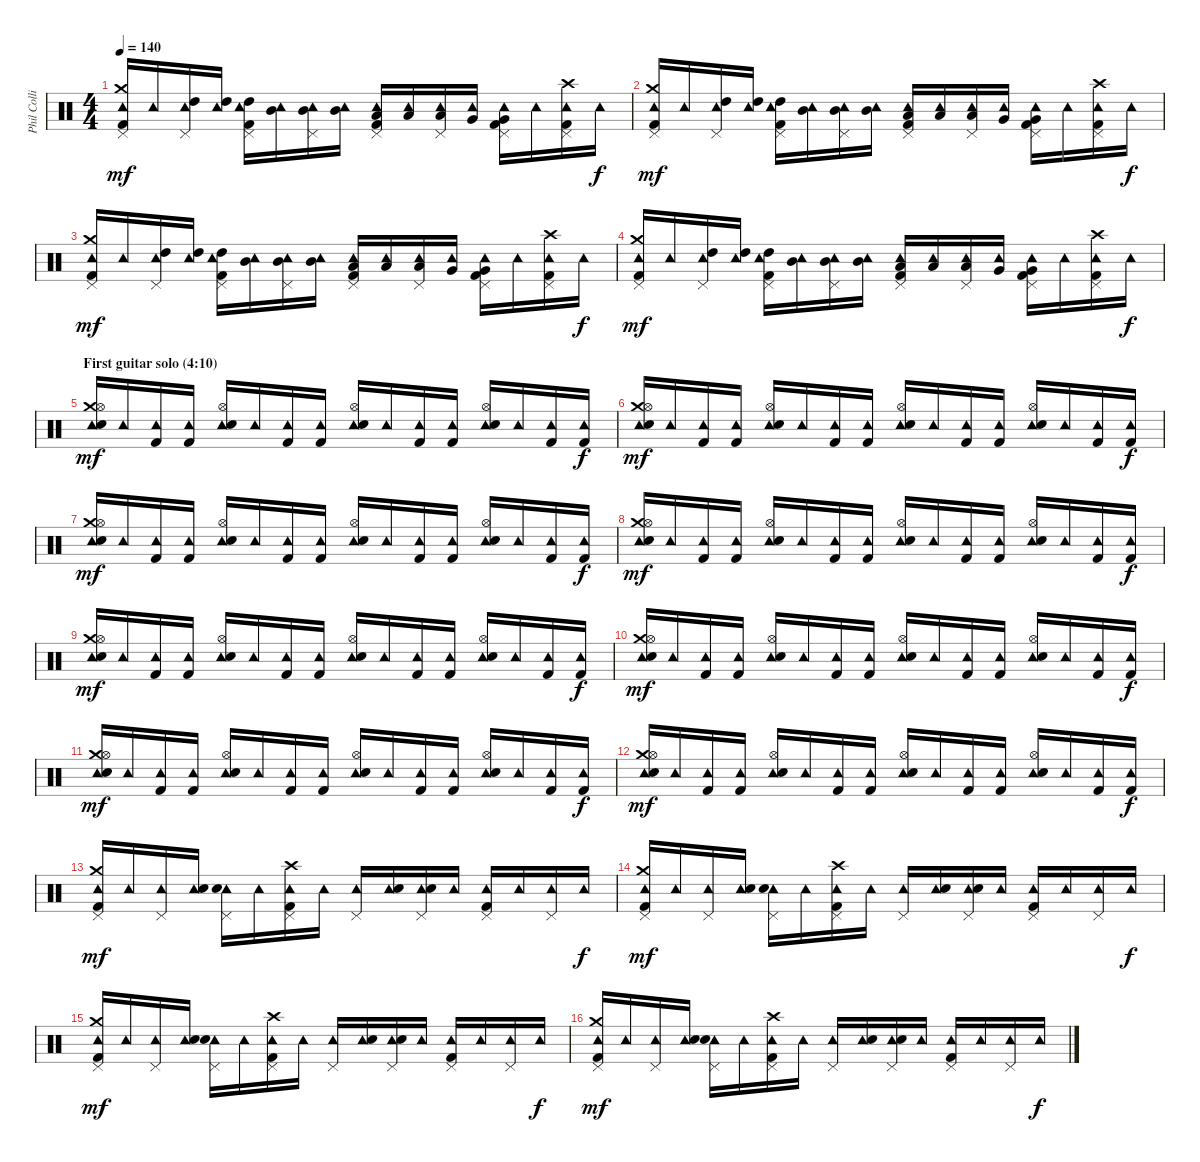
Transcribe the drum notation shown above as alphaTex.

\track ("Phil Collins (drums)" "Phil Colli") {instrument percussion}
\staff {score}
\articulation defaults
\ts (4 4)
\tempo 140
\clef neutral
\ks c
("Tambourine (hit)" "Crash medium (hit)" "Pedal Hi-Hat (hit)" "Kick (hit) 2").16{dy mf} "Tambourine (hit)".16 ("Tambourine (hit)" "High Tom (hit)" "Pedal Hi-Hat (hit)").16 ("Tambourine (hit)" "High Tom (hit)").16 ("Tambourine (hit)" "High Tom (hit)" "Pedal Hi-Hat (hit)" "Kick (hit) 2").16 ("Tambourine (hit)" "Mid Tom (hit)").16 ("Tambourine (hit)" "Mid Tom (hit)" "Pedal Hi-Hat (hit)").16 ("Tambourine (hit)" "Mid Tom (hit)").16 ("Tambourine (hit)" "Low Tom (hit)" "Pedal Hi-Hat (hit)" "Kick (hit) 2").16 ("Tambourine (hit)" "Low Tom (hit)").16 ("Tambourine (hit)" "Low Tom (hit)" "Pedal Hi-Hat (hit)").16 ("Tambourine (hit)" "Very Low Tom (hit)").16 ("Tambourine (hit)" "Very Low Tom (hit)" "Pedal Hi-Hat (hit)" "Kick (hit) 2").16 "Tambourine (hit)".16 ("Tambourine (hit)" "Crash high (hit)" "Pedal Hi-Hat (hit)" "Kick (hit) 2").16 "Tambourine (hit)".16{dy f} |
("Tambourine (hit)" "Crash medium (hit)" "Pedal Hi-Hat (hit)" "Kick (hit) 2").16{dy mf} "Tambourine (hit)".16 ("Tambourine (hit)" "High Tom (hit)" "Pedal Hi-Hat (hit)").16 ("Tambourine (hit)" "High Tom (hit)").16 ("Tambourine (hit)" "High Tom (hit)" "Pedal Hi-Hat (hit)" "Kick (hit) 2").16 ("Tambourine (hit)" "Mid Tom (hit)").16 ("Tambourine (hit)" "Mid Tom (hit)" "Pedal Hi-Hat (hit)").16 ("Tambourine (hit)" "Mid Tom (hit)").16 ("Tambourine (hit)" "Low Tom (hit)" "Pedal Hi-Hat (hit)" "Kick (hit) 2").16 ("Tambourine (hit)" "Low Tom (hit)").16 ("Tambourine (hit)" "Low Tom (hit)" "Pedal Hi-Hat (hit)").16 ("Tambourine (hit)" "Very Low Tom (hit)").16 ("Tambourine (hit)" "Very Low Tom (hit)" "Pedal Hi-Hat (hit)" "Kick (hit) 2").16 "Tambourine (hit)".16 ("Tambourine (hit)" "Crash high (hit)" "Pedal Hi-Hat (hit)" "Kick (hit) 2").16 "Tambourine (hit)".16{dy f} |
("Tambourine (hit)" "Crash medium (hit)" "Pedal Hi-Hat (hit)" "Kick (hit) 2").16{dy mf} "Tambourine (hit)".16 ("Tambourine (hit)" "High Tom (hit)" "Pedal Hi-Hat (hit)").16 ("Tambourine (hit)" "High Tom (hit)").16 ("Tambourine (hit)" "High Tom (hit)" "Pedal Hi-Hat (hit)" "Kick (hit) 2").16 ("Tambourine (hit)" "Mid Tom (hit)").16 ("Tambourine (hit)" "Mid Tom (hit)" "Pedal Hi-Hat (hit)").16 ("Tambourine (hit)" "Mid Tom (hit)").16 ("Tambourine (hit)" "Low Tom (hit)" "Pedal Hi-Hat (hit)" "Kick (hit) 2").16 ("Tambourine (hit)" "Low Tom (hit)").16 ("Tambourine (hit)" "Low Tom (hit)" "Pedal Hi-Hat (hit)").16 ("Tambourine (hit)" "Very Low Tom (hit)").16 ("Tambourine (hit)" "Very Low Tom (hit)" "Pedal Hi-Hat (hit)" "Kick (hit) 2").16 "Tambourine (hit)".16 ("Tambourine (hit)" "Crash high (hit)" "Pedal Hi-Hat (hit)" "Kick (hit) 2").16 "Tambourine (hit)".16{dy f} |
("Tambourine (hit)" "Crash medium (hit)" "Pedal Hi-Hat (hit)" "Kick (hit) 2").16{dy mf} "Tambourine (hit)".16 ("Tambourine (hit)" "High Tom (hit)" "Pedal Hi-Hat (hit)").16 ("Tambourine (hit)" "High Tom (hit)").16 ("Tambourine (hit)" "High Tom (hit)" "Pedal Hi-Hat (hit)" "Kick (hit) 2").16 ("Tambourine (hit)" "Mid Tom (hit)").16 ("Tambourine (hit)" "Mid Tom (hit)" "Pedal Hi-Hat (hit)").16 ("Tambourine (hit)" "Mid Tom (hit)").16 ("Tambourine (hit)" "Low Tom (hit)" "Pedal Hi-Hat (hit)" "Kick (hit) 2").16 ("Tambourine (hit)" "Low Tom (hit)").16 ("Tambourine (hit)" "Low Tom (hit)" "Pedal Hi-Hat (hit)").16 ("Tambourine (hit)" "Very Low Tom (hit)").16 ("Tambourine (hit)" "Very Low Tom (hit)" "Pedal Hi-Hat (hit)" "Kick (hit) 2").16 "Tambourine (hit)".16 ("Tambourine (hit)" "Crash high (hit)" "Pedal Hi-Hat (hit)" "Kick (hit) 2").16 "Tambourine (hit)".16{dy f} |
\section ("" "First guitar solo (4:10)")
("Tambourine (hit)" "Crash medium (hit)" "Hi-Hat (open)" "Electric Snare (hit)").16{dy mf} "Tambourine (hit)".16 ("Tambourine (hit)" "Kick (hit) 2").16 ("Tambourine (hit)" "Kick (hit) 2").16 ("Tambourine (hit)" "Hi-Hat (open)" "Electric Snare (hit)").16 "Tambourine (hit)".16 ("Tambourine (hit)" "Kick (hit) 2").16 ("Tambourine (hit)" "Kick (hit) 2").16 ("Tambourine (hit)" "Hi-Hat (open)" "Electric Snare (hit)").16 "Tambourine (hit)".16 ("Tambourine (hit)" "Kick (hit) 2").16 ("Tambourine (hit)" "Kick (hit) 2").16 ("Tambourine (hit)" "Hi-Hat (open)" "Electric Snare (hit)").16 "Tambourine (hit)".16 ("Tambourine (hit)" "Kick (hit) 2").16 ("Tambourine (hit)" "Kick (hit) 2").16{dy f} |
("Tambourine (hit)" "Crash medium (hit)" "Hi-Hat (open)" "Electric Snare (hit)").16{dy mf} "Tambourine (hit)".16 ("Tambourine (hit)" "Kick (hit) 2").16 ("Tambourine (hit)" "Kick (hit) 2").16 ("Tambourine (hit)" "Hi-Hat (open)" "Electric Snare (hit)").16 "Tambourine (hit)".16 ("Tambourine (hit)" "Kick (hit) 2").16 ("Tambourine (hit)" "Kick (hit) 2").16 ("Tambourine (hit)" "Hi-Hat (open)" "Electric Snare (hit)").16 "Tambourine (hit)".16 ("Tambourine (hit)" "Kick (hit) 2").16 ("Tambourine (hit)" "Kick (hit) 2").16 ("Tambourine (hit)" "Hi-Hat (open)" "Electric Snare (hit)").16 "Tambourine (hit)".16 ("Tambourine (hit)" "Kick (hit) 2").16 ("Tambourine (hit)" "Kick (hit) 2").16{dy f} |
("Tambourine (hit)" "Crash medium (hit)" "Hi-Hat (open)" "Electric Snare (hit)").16{dy mf} "Tambourine (hit)".16 ("Tambourine (hit)" "Kick (hit) 2").16 ("Tambourine (hit)" "Kick (hit) 2").16 ("Tambourine (hit)" "Hi-Hat (open)" "Electric Snare (hit)").16 "Tambourine (hit)".16 ("Tambourine (hit)" "Kick (hit) 2").16 ("Tambourine (hit)" "Kick (hit) 2").16 ("Tambourine (hit)" "Hi-Hat (open)" "Electric Snare (hit)").16 "Tambourine (hit)".16 ("Tambourine (hit)" "Kick (hit) 2").16 ("Tambourine (hit)" "Kick (hit) 2").16 ("Tambourine (hit)" "Hi-Hat (open)" "Electric Snare (hit)").16 "Tambourine (hit)".16 ("Tambourine (hit)" "Kick (hit) 2").16 ("Tambourine (hit)" "Kick (hit) 2").16{dy f} |
("Tambourine (hit)" "Crash medium (hit)" "Hi-Hat (open)" "Electric Snare (hit)").16{dy mf} "Tambourine (hit)".16 ("Tambourine (hit)" "Kick (hit) 2").16 ("Tambourine (hit)" "Kick (hit) 2").16 ("Tambourine (hit)" "Hi-Hat (open)" "Electric Snare (hit)").16 "Tambourine (hit)".16 ("Tambourine (hit)" "Kick (hit) 2").16 ("Tambourine (hit)" "Kick (hit) 2").16 ("Tambourine (hit)" "Hi-Hat (open)" "Electric Snare (hit)").16 "Tambourine (hit)".16 ("Tambourine (hit)" "Kick (hit) 2").16 ("Tambourine (hit)" "Kick (hit) 2").16 ("Tambourine (hit)" "Hi-Hat (open)" "Electric Snare (hit)").16 "Tambourine (hit)".16 ("Tambourine (hit)" "Kick (hit) 2").16 ("Tambourine (hit)" "Kick (hit) 2").16{dy f} |
("Tambourine (hit)" "Crash medium (hit)" "Hi-Hat (open)" "Electric Snare (hit)").16{dy mf} "Tambourine (hit)".16 ("Tambourine (hit)" "Kick (hit) 2").16 ("Tambourine (hit)" "Kick (hit) 2").16 ("Tambourine (hit)" "Hi-Hat (open)" "Electric Snare (hit)").16 "Tambourine (hit)".16 ("Tambourine (hit)" "Kick (hit) 2").16 ("Tambourine (hit)" "Kick (hit) 2").16 ("Tambourine (hit)" "Hi-Hat (open)" "Electric Snare (hit)").16 "Tambourine (hit)".16 ("Tambourine (hit)" "Kick (hit) 2").16 ("Tambourine (hit)" "Kick (hit) 2").16 ("Tambourine (hit)" "Hi-Hat (open)" "Electric Snare (hit)").16 "Tambourine (hit)".16 ("Tambourine (hit)" "Kick (hit) 2").16 ("Tambourine (hit)" "Kick (hit) 2").16{dy f} |
("Tambourine (hit)" "Crash medium (hit)" "Hi-Hat (open)" "Electric Snare (hit)").16{dy mf} "Tambourine (hit)".16 ("Tambourine (hit)" "Kick (hit) 2").16 ("Tambourine (hit)" "Kick (hit) 2").16 ("Tambourine (hit)" "Hi-Hat (open)" "Electric Snare (hit)").16 "Tambourine (hit)".16 ("Tambourine (hit)" "Kick (hit) 2").16 ("Tambourine (hit)" "Kick (hit) 2").16 ("Tambourine (hit)" "Hi-Hat (open)" "Electric Snare (hit)").16 "Tambourine (hit)".16 ("Tambourine (hit)" "Kick (hit) 2").16 ("Tambourine (hit)" "Kick (hit) 2").16 ("Tambourine (hit)" "Hi-Hat (open)" "Electric Snare (hit)").16 "Tambourine (hit)".16 ("Tambourine (hit)" "Kick (hit) 2").16 ("Tambourine (hit)" "Kick (hit) 2").16{dy f} |
("Tambourine (hit)" "Crash medium (hit)" "Hi-Hat (open)" "Electric Snare (hit)").16{dy mf} "Tambourine (hit)".16 ("Tambourine (hit)" "Kick (hit) 2").16 ("Tambourine (hit)" "Kick (hit) 2").16 ("Tambourine (hit)" "Hi-Hat (open)" "Electric Snare (hit)").16 "Tambourine (hit)".16 ("Tambourine (hit)" "Kick (hit) 2").16 ("Tambourine (hit)" "Kick (hit) 2").16 ("Tambourine (hit)" "Hi-Hat (open)" "Electric Snare (hit)").16 "Tambourine (hit)".16 ("Tambourine (hit)" "Kick (hit) 2").16 ("Tambourine (hit)" "Kick (hit) 2").16 ("Tambourine (hit)" "Hi-Hat (open)" "Electric Snare (hit)").16 "Tambourine (hit)".16 ("Tambourine (hit)" "Kick (hit) 2").16 ("Tambourine (hit)" "Kick (hit) 2").16{dy f} |
("Tambourine (hit)" "Crash medium (hit)" "Hi-Hat (open)" "Electric Snare (hit)").16{dy mf} "Tambourine (hit)".16 ("Tambourine (hit)" "Kick (hit) 2").16 ("Tambourine (hit)" "Kick (hit) 2").16 ("Tambourine (hit)" "Hi-Hat (open)" "Electric Snare (hit)").16 "Tambourine (hit)".16 ("Tambourine (hit)" "Kick (hit) 2").16 ("Tambourine (hit)" "Kick (hit) 2").16 ("Tambourine (hit)" "Hi-Hat (open)" "Electric Snare (hit)").16 "Tambourine (hit)".16 ("Tambourine (hit)" "Kick (hit) 2").16 ("Tambourine (hit)" "Kick (hit) 2").16 ("Tambourine (hit)" "Hi-Hat (open)" "Electric Snare (hit)").16 "Tambourine (hit)".16 ("Tambourine (hit)" "Kick (hit) 2").16 ("Tambourine (hit)" "Kick (hit) 2").16{dy f} |
("Tambourine (hit)" "Crash medium (hit)" "Pedal Hi-Hat (hit)" "Kick (hit) 2").16{dy mf} "Tambourine (hit)".16 ("Tambourine (hit)" "Pedal Hi-Hat (hit)").16 ("Tambourine (hit)" "Electric Snare (hit)").16 ("Tambourine (hit)" "Pedal Hi-Hat (hit)" "Electric Snare (hit)").16 "Tambourine (hit)".16 ("Tambourine (hit)" "Crash high (hit)" "Pedal Hi-Hat (hit)" "Kick (hit) 2").16 "Tambourine (hit)".16 ("Tambourine (hit)" "Pedal Hi-Hat (hit)").16 ("Tambourine (hit)" "Electric Snare (hit)").16 ("Tambourine (hit)" "Pedal Hi-Hat (hit)" "Electric Snare (hit)").16 "Tambourine (hit)".16 ("Tambourine (hit)" "Pedal Hi-Hat (hit)" "Kick (hit) 2").16 "Tambourine (hit)".16 ("Tambourine (hit)" "Pedal Hi-Hat (hit)").16 "Tambourine (hit)".16{dy f} |
("Tambourine (hit)" "Crash medium (hit)" "Pedal Hi-Hat (hit)" "Kick (hit) 2").16{dy mf} "Tambourine (hit)".16 ("Tambourine (hit)" "Pedal Hi-Hat (hit)").16 ("Tambourine (hit)" "Electric Snare (hit)").16 ("Tambourine (hit)" "Pedal Hi-Hat (hit)" "Electric Snare (hit)").16 "Tambourine (hit)".16 ("Tambourine (hit)" "Crash high (hit)" "Pedal Hi-Hat (hit)" "Kick (hit) 2").16 "Tambourine (hit)".16 ("Tambourine (hit)" "Pedal Hi-Hat (hit)").16 ("Tambourine (hit)" "Electric Snare (hit)").16 ("Tambourine (hit)" "Pedal Hi-Hat (hit)" "Electric Snare (hit)").16 "Tambourine (hit)".16 ("Tambourine (hit)" "Pedal Hi-Hat (hit)" "Kick (hit) 2").16 "Tambourine (hit)".16 ("Tambourine (hit)" "Pedal Hi-Hat (hit)").16 "Tambourine (hit)".16{dy f} |
("Tambourine (hit)" "Crash medium (hit)" "Pedal Hi-Hat (hit)" "Kick (hit) 2").16{dy mf} "Tambourine (hit)".16 ("Tambourine (hit)" "Pedal Hi-Hat (hit)").16 ("Tambourine (hit)" "Electric Snare (hit)").16 ("Tambourine (hit)" "Pedal Hi-Hat (hit)" "Electric Snare (hit)").16 "Tambourine (hit)".16 ("Tambourine (hit)" "Crash high (hit)" "Pedal Hi-Hat (hit)" "Kick (hit) 2").16 "Tambourine (hit)".16 ("Tambourine (hit)" "Pedal Hi-Hat (hit)").16 ("Tambourine (hit)" "Electric Snare (hit)").16 ("Tambourine (hit)" "Pedal Hi-Hat (hit)" "Electric Snare (hit)").16 "Tambourine (hit)".16 ("Tambourine (hit)" "Pedal Hi-Hat (hit)" "Kick (hit) 2").16 "Tambourine (hit)".16 ("Tambourine (hit)" "Pedal Hi-Hat (hit)").16 "Tambourine (hit)".16{dy f} |
("Tambourine (hit)" "Crash medium (hit)" "Pedal Hi-Hat (hit)" "Kick (hit) 2").16{dy mf} "Tambourine (hit)".16 ("Tambourine (hit)" "Pedal Hi-Hat (hit)").16 ("Tambourine (hit)" "Electric Snare (hit)").16 ("Tambourine (hit)" "Pedal Hi-Hat (hit)" "Electric Snare (hit)").16 "Tambourine (hit)".16 ("Tambourine (hit)" "Crash high (hit)" "Pedal Hi-Hat (hit)" "Kick (hit) 2").16 "Tambourine (hit)".16 ("Tambourine (hit)" "Pedal Hi-Hat (hit)").16 ("Tambourine (hit)" "Electric Snare (hit)").16 ("Tambourine (hit)" "Pedal Hi-Hat (hit)" "Electric Snare (hit)").16 "Tambourine (hit)".16 ("Tambourine (hit)" "Pedal Hi-Hat (hit)" "Kick (hit) 2").16 "Tambourine (hit)".16 ("Tambourine (hit)" "Pedal Hi-Hat (hit)").16 "Tambourine (hit)".16{dy f}
